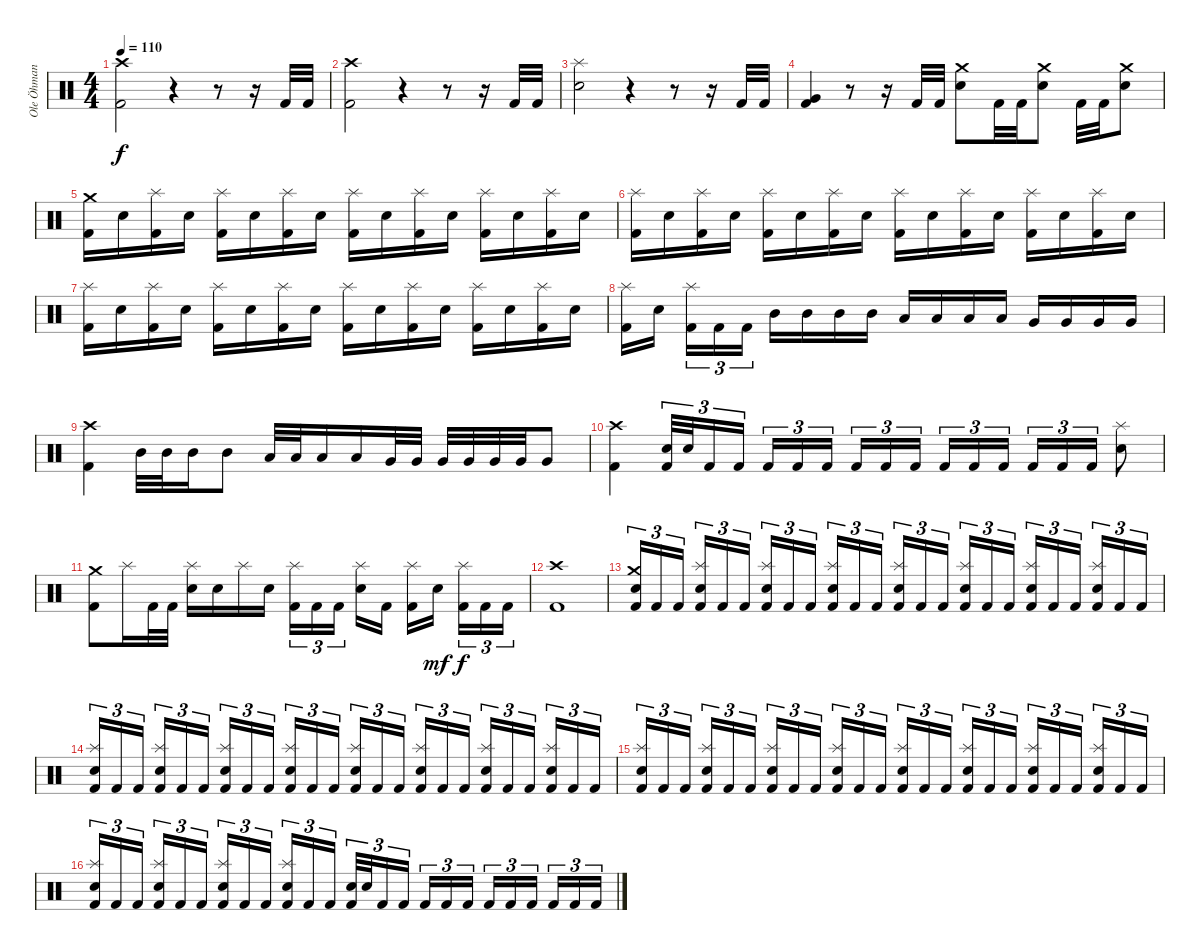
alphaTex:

\track ("Ole Öhman" "Ole Öhman") {instrument percussion}
\staff {score}
\articulation defaults
\ts (4 4)
\tempo 110
\clef neutral
\ks c
("Crash high (hit)" "Kick (hit) 2").2{dy f} r.4 r.8 r.16 "Kick (hit) 2".32 "Kick (hit) 2".32 |
("Crash high (hit)" "Kick (hit) 2").2 r.4 r.8 r.16 "Kick (hit) 2".32 "Kick (hit) 2".32 |
("Splash (hit)" "Snare (hit) 2").2 r.4 r.8 r.16 "Kick (hit) 2".32 "Kick (hit) 2".32 |
("Very Low Tom (hit)" "Kick (hit) 2").4 r.8 r.16 "Kick (hit) 2".32 "Kick (hit) 2".32 ("Crash medium (hit)" "Electric Snare (hit)").8 "Kick (hit) 2".32 "Kick (hit) 2".32 ("Crash medium (hit)" "Electric Snare (hit)").8 "Kick (hit) 2".32 "Kick (hit) 2".32 ("Crash medium (hit)" "Electric Snare (hit)").8 |
("Crash medium (hit)" "Kick (hit) 2").16 "Electric Snare (hit)".16 ("Splash (hit)" "Kick (hit) 2").16 "Electric Snare (hit)".16 ("Splash (hit)" "Kick (hit) 2").16 "Electric Snare (hit)".16 ("Splash (hit)" "Kick (hit) 2").16 "Electric Snare (hit)".16 ("Splash (hit)" "Kick (hit) 2").16 "Electric Snare (hit)".16 ("Splash (hit)" "Kick (hit) 2").16 "Electric Snare (hit)".16 ("Splash (hit)" "Kick (hit) 2").16 "Electric Snare (hit)".16 ("Splash (hit)" "Kick (hit) 2").16 "Electric Snare (hit)".16 |
("Splash (hit)" "Kick (hit) 2").16 "Electric Snare (hit)".16 ("Splash (hit)" "Kick (hit) 2").16 "Electric Snare (hit)".16 ("Splash (hit)" "Kick (hit) 2").16 "Electric Snare (hit)".16 ("Splash (hit)" "Kick (hit) 2").16 "Electric Snare (hit)".16 ("Splash (hit)" "Kick (hit) 2").16 "Electric Snare (hit)".16 ("Splash (hit)" "Kick (hit) 2").16 "Electric Snare (hit)".16 ("Splash (hit)" "Kick (hit) 2").16 "Electric Snare (hit)".16 ("Splash (hit)" "Kick (hit) 2").16 "Electric Snare (hit)".16 |
("Splash (hit)" "Kick (hit) 2").16 "Electric Snare (hit)".16 ("Splash (hit)" "Kick (hit) 2").16 "Electric Snare (hit)".16 ("Splash (hit)" "Kick (hit) 2").16 "Electric Snare (hit)".16 ("Splash (hit)" "Kick (hit) 2").16 "Electric Snare (hit)".16 ("Splash (hit)" "Kick (hit) 2").16 "Electric Snare (hit)".16 ("Splash (hit)" "Kick (hit) 2").16 "Electric Snare (hit)".16 ("Splash (hit)" "Kick (hit) 2").16 "Electric Snare (hit)".16 ("Splash (hit)" "Kick (hit) 2").16 "Electric Snare (hit)".16 |
("Splash (hit)" "Kick (hit) 2").16 "Electric Snare (hit)".16{beam splitsecondary} ("Splash (hit)" "Kick (hit) 2").16{tu (3 2)} "Kick (hit) 2".16{tu (3 2)} "Kick (hit) 2".16{tu (3 2)} "Mid Tom (hit)".16 "Mid Tom (hit)".16 "Mid Tom (hit)".16 "Mid Tom (hit)".16 "Low Tom (hit)".16 "Low Tom (hit)".16 "Low Tom (hit)".16 "Low Tom (hit)".16 "Very Low Tom (hit)".16 "Very Low Tom (hit)".16 "Very Low Tom (hit)".16 "Very Low Tom (hit)".16 |
("Crash high (hit)" "Kick (hit) 2").4 "Mid Tom (hit)".32 "Mid Tom (hit)".32 "Mid Tom (hit)".16 "Mid Tom (hit)".8 "Low Tom (hit)".32 "Low Tom (hit)".32 "Low Tom (hit)".16 "Low Tom (hit)".16 "Very Low Tom (hit)".32 "Very Low Tom (hit)".32 "Very Low Tom (hit)".32 "Very Low Tom (hit)".32 "Very Low Tom (hit)".32 "Very Low Tom (hit)".32 "Very Low Tom (hit)".8 |
("Crash high (hit)" "Kick (hit) 2").4 ("Electric Snare (hit)" "Kick (hit) 2").32{tu (3 2)} "Electric Snare (hit)".32{tu (3 2)} "Kick (hit) 2".16{tu (3 2)} "Kick (hit) 2".16{tu (3 2) beam splitsecondary} "Kick (hit) 2".16{tu (3 2)} "Kick (hit) 2".16{tu (3 2)} "Kick (hit) 2".16{tu (3 2)} "Kick (hit) 2".16{tu (3 2)} "Kick (hit) 2".16{tu (3 2)} "Kick (hit) 2".16{tu (3 2) beam splitsecondary} "Kick (hit) 2".16{tu (3 2)} "Kick (hit) 2".16{tu (3 2)} "Kick (hit) 2".16{tu (3 2)} "Kick (hit) 2".16{tu (3 2)} "Kick (hit) 2".16{tu (3 2)} "Kick (hit) 2".16{tu (3 2)} ("Splash (hit)" "Electric Snare (hit)").8 |
("Crash medium (hit)" "Kick (hit) 2").8 "Splash (hit)".16 "Kick (hit) 2".32 "Kick (hit) 2".32 ("Splash (hit)" "Electric Snare (hit)").16 "Electric Snare (hit)".16 "Splash (hit)".16 "Electric Snare (hit)".16 ("Splash (hit)" "Kick (hit) 2").16{tu (3 2)} "Kick (hit) 2".16{tu (3 2)} "Kick (hit) 2".16{tu (3 2) beam splitsecondary} ("Splash (hit)" "Electric Snare (hit)").16 "Kick (hit) 2".16 ("Splash (hit)" "Kick (hit) 2").16 "Electric Snare (hit)".16{dy mf beam splitsecondary} ("Splash (hit)" "Kick (hit) 2").16{tu (3 2) dy f} "Kick (hit) 2".16{tu (3 2)} "Kick (hit) 2".16{tu (3 2)} |
("Crash high (hit)" "Kick (hit) 2").1 |
("Crash medium (hit)" "Electric Snare (hit)" "Kick (hit) 2").16{tu (3 2)} "Kick (hit) 2".16{tu (3 2)} "Kick (hit) 2".16{tu (3 2) beam splitsecondary} ("Splash (hit)" "Electric Snare (hit)" "Kick (hit) 2").16{tu (3 2)} "Kick (hit) 2".16{tu (3 2)} "Kick (hit) 2".16{tu (3 2)} ("Splash (hit)" "Electric Snare (hit)" "Kick (hit) 2").16{tu (3 2)} "Kick (hit) 2".16{tu (3 2)} "Kick (hit) 2".16{tu (3 2) beam splitsecondary} ("Splash (hit)" "Electric Snare (hit)" "Kick (hit) 2").16{tu (3 2)} "Kick (hit) 2".16{tu (3 2)} "Kick (hit) 2".16{tu (3 2)} ("Splash (hit)" "Electric Snare (hit)" "Kick (hit) 2").16{tu (3 2)} "Kick (hit) 2".16{tu (3 2)} "Kick (hit) 2".16{tu (3 2) beam splitsecondary} ("Splash (hit)" "Electric Snare (hit)" "Kick (hit) 2").16{tu (3 2)} "Kick (hit) 2".16{tu (3 2)} "Kick (hit) 2".16{tu (3 2)} ("Splash (hit)" "Electric Snare (hit)" "Kick (hit) 2").16{tu (3 2)} "Kick (hit) 2".16{tu (3 2)} "Kick (hit) 2".16{tu (3 2) beam splitsecondary} ("Splash (hit)" "Electric Snare (hit)" "Kick (hit) 2").16{tu (3 2)} "Kick (hit) 2".16{tu (3 2)} "Kick (hit) 2".16{tu (3 2)} |
("Splash (hit)" "Electric Snare (hit)" "Kick (hit) 2").16{tu (3 2)} "Kick (hit) 2".16{tu (3 2)} "Kick (hit) 2".16{tu (3 2) beam splitsecondary} ("Splash (hit)" "Electric Snare (hit)" "Kick (hit) 2").16{tu (3 2)} "Kick (hit) 2".16{tu (3 2)} "Kick (hit) 2".16{tu (3 2)} ("Splash (hit)" "Electric Snare (hit)" "Kick (hit) 2").16{tu (3 2)} "Kick (hit) 2".16{tu (3 2)} "Kick (hit) 2".16{tu (3 2) beam splitsecondary} ("Splash (hit)" "Electric Snare (hit)" "Kick (hit) 2").16{tu (3 2)} "Kick (hit) 2".16{tu (3 2)} "Kick (hit) 2".16{tu (3 2)} ("Splash (hit)" "Electric Snare (hit)" "Kick (hit) 2").16{tu (3 2)} "Kick (hit) 2".16{tu (3 2)} "Kick (hit) 2".16{tu (3 2) beam splitsecondary} ("Splash (hit)" "Electric Snare (hit)" "Kick (hit) 2").16{tu (3 2)} "Kick (hit) 2".16{tu (3 2)} "Kick (hit) 2".16{tu (3 2)} ("Splash (hit)" "Electric Snare (hit)" "Kick (hit) 2").16{tu (3 2)} "Kick (hit) 2".16{tu (3 2)} "Kick (hit) 2".16{tu (3 2) beam splitsecondary} ("Splash (hit)" "Electric Snare (hit)" "Kick (hit) 2").16{tu (3 2)} "Kick (hit) 2".16{tu (3 2)} "Kick (hit) 2".16{tu (3 2)} |
("Splash (hit)" "Electric Snare (hit)" "Kick (hit) 2").16{tu (3 2)} "Kick (hit) 2".16{tu (3 2)} "Kick (hit) 2".16{tu (3 2) beam splitsecondary} ("Splash (hit)" "Electric Snare (hit)" "Kick (hit) 2").16{tu (3 2)} "Kick (hit) 2".16{tu (3 2)} "Kick (hit) 2".16{tu (3 2)} ("Splash (hit)" "Electric Snare (hit)" "Kick (hit) 2").16{tu (3 2)} "Kick (hit) 2".16{tu (3 2)} "Kick (hit) 2".16{tu (3 2) beam splitsecondary} ("Splash (hit)" "Electric Snare (hit)" "Kick (hit) 2").16{tu (3 2)} "Kick (hit) 2".16{tu (3 2)} "Kick (hit) 2".16{tu (3 2)} ("Splash (hit)" "Electric Snare (hit)" "Kick (hit) 2").16{tu (3 2)} "Kick (hit) 2".16{tu (3 2)} "Kick (hit) 2".16{tu (3 2) beam splitsecondary} ("Splash (hit)" "Electric Snare (hit)" "Kick (hit) 2").16{tu (3 2)} "Kick (hit) 2".16{tu (3 2)} "Kick (hit) 2".16{tu (3 2)} ("Splash (hit)" "Electric Snare (hit)" "Kick (hit) 2").16{tu (3 2)} "Kick (hit) 2".16{tu (3 2)} "Kick (hit) 2".16{tu (3 2) beam splitsecondary} ("Splash (hit)" "Electric Snare (hit)" "Kick (hit) 2").16{tu (3 2)} "Kick (hit) 2".16{tu (3 2)} "Kick (hit) 2".16{tu (3 2)} |
("Splash (hit)" "Electric Snare (hit)" "Kick (hit) 2").16{tu (3 2)} "Kick (hit) 2".16{tu (3 2)} "Kick (hit) 2".16{tu (3 2) beam splitsecondary} ("Splash (hit)" "Electric Snare (hit)" "Kick (hit) 2").16{tu (3 2)} "Kick (hit) 2".16{tu (3 2)} "Kick (hit) 2".16{tu (3 2)} ("Splash (hit)" "Electric Snare (hit)" "Kick (hit) 2").16{tu (3 2)} "Kick (hit) 2".16{tu (3 2)} "Kick (hit) 2".16{tu (3 2) beam splitsecondary} ("Splash (hit)" "Electric Snare (hit)" "Kick (hit) 2").16{tu (3 2)} "Kick (hit) 2".16{tu (3 2)} "Kick (hit) 2".16{tu (3 2)} ("Electric Snare (hit)" "Kick (hit) 2").32{tu (3 2)} "Electric Snare (hit)".32{tu (3 2)} "Kick (hit) 2".16{tu (3 2)} "Kick (hit) 2".16{tu (3 2) beam splitsecondary} "Kick (hit) 2".16{tu (3 2)} "Kick (hit) 2".16{tu (3 2)} "Kick (hit) 2".16{tu (3 2)} "Kick (hit) 2".16{tu (3 2)} "Kick (hit) 2".16{tu (3 2)} "Kick (hit) 2".16{tu (3 2) beam splitsecondary} "Kick (hit) 2".16{tu (3 2)} "Kick (hit) 2".16{tu (3 2)} "Kick (hit) 2".16{tu (3 2)}
